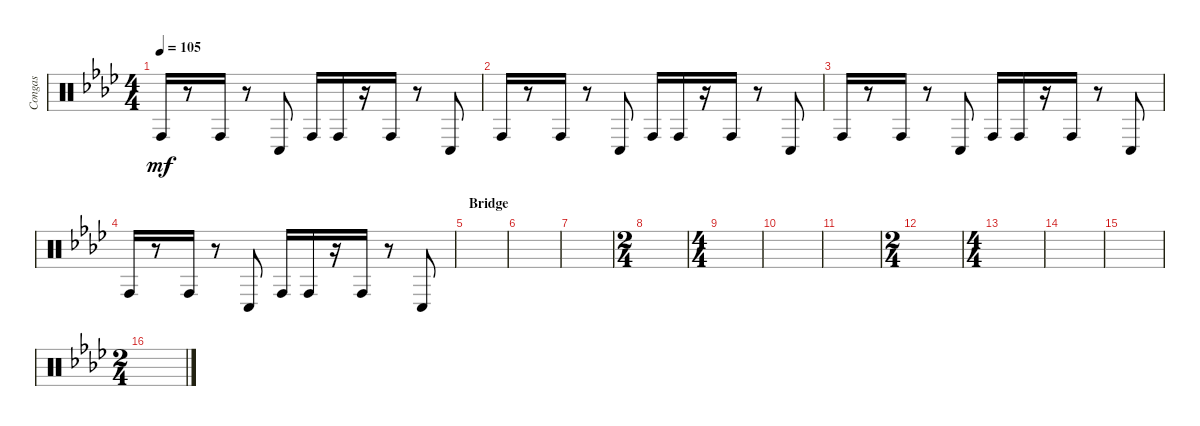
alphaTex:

\track ("Congas" "Congas") {instrument percussion}
\staff {score}
\articulation defaults
\ts (4 4)
\tempo 105
\clef neutral
\ks ab "Conga high (hit)".16{dy mf}
r.8 "Conga high (hit)".16 r.8 "Conga low (hit)".8 "Conga high (hit)".16 "Conga high (hit)".16 r.16 "Conga high (hit)".16 r.8 "Conga low (hit)".8 |
"Conga high (hit)".16 r.8 "Conga high (hit)".16 r.8 "Conga low (hit)".8 "Conga high (hit)".16 "Conga high (hit)".16 r.16 "Conga high (hit)".16 r.8 "Conga low (hit)".8 |
"Conga high (hit)".16 r.8 "Conga high (hit)".16 r.8 "Conga low (hit)".8 "Conga high (hit)".16 "Conga high (hit)".16 r.16 "Conga high (hit)".16 r.8 "Conga low (hit)".8 |
"Conga high (hit)".16 r.8 "Conga high (hit)".16 r.8 "Conga low (hit)".8 "Conga high (hit)".16 "Conga high (hit)".16 r.16 "Conga high (hit)".16 r.8 "Conga low (hit)".8 |
\section ("" "Bridge")
|
|
|
\ts (2 4)
|
\ts (4 4)
|
|
|
\ts (2 4)
|
\ts (4 4)
|
|
|
\ts (2 4)
